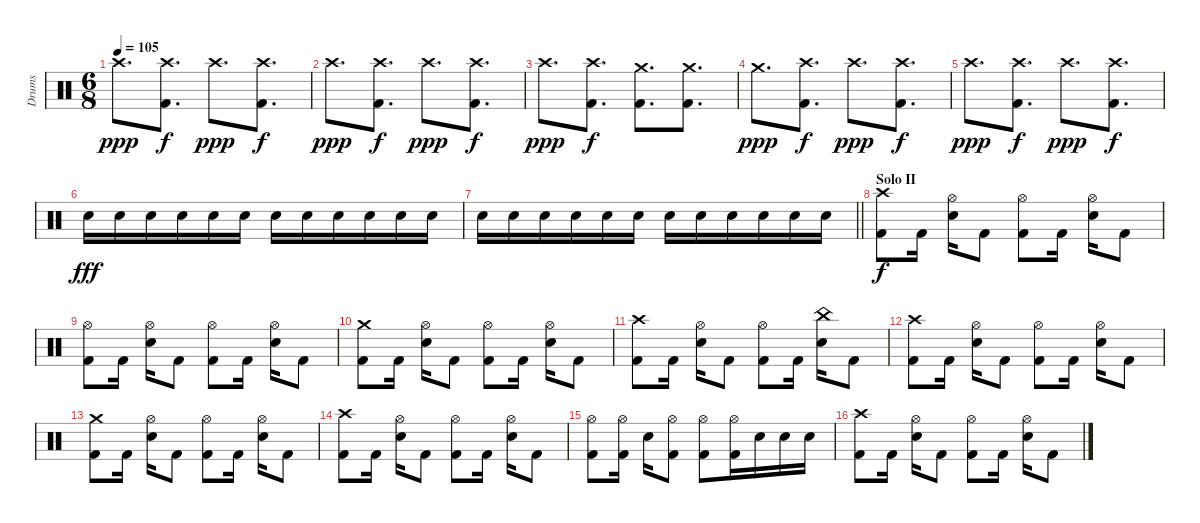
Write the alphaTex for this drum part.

\track ("Drums" "Drums") {instrument percussion}
\staff {score}
\articulation defaults
\ts (6 8)
\tempo 105
\clef neutral
\ks c "Crash high (hit)".8{d dy ppp}
("Crash high (hit)" "Kick (hit) 2").8{d dy f} "Crash high (hit)".8{d dy ppp} ("Crash high (hit)" "Kick (hit) 2").8{d dy f} |
"Crash high (hit)".8{d dy ppp} ("Crash high (hit)" "Kick (hit) 2").8{d dy f} "Crash high (hit)".8{d dy ppp} ("Crash high (hit)" "Kick (hit) 2").8{d dy f} |
"Crash high (hit)".8{d dy ppp} ("Crash high (hit)" "Kick (hit) 2").8{d dy f} ("Crash medium (hit)" "Kick (hit) 2").8{d} ("Crash medium (hit)" "Kick (hit) 2").8{d} |
"Crash medium (hit)".8{d dy ppp} ("Crash high (hit)" "Kick (hit) 2").8{d dy f} "Crash high (hit)".8{d dy ppp} ("Crash high (hit)" "Kick (hit) 2").8{d dy f} |
"Crash high (hit)".8{d dy ppp} ("Crash high (hit)" "Kick (hit) 2").8{d dy f} "Crash high (hit)".8{d dy ppp} ("Crash high (hit)" "Kick (hit) 2").8{d dy f} |
"Electric Snare (hit)".16{dy fff volume 3} "Electric Snare (hit)".16{volume 15} "Electric Snare (hit)".16 "Electric Snare (hit)".16 "Electric Snare (hit)".16 "Electric Snare (hit)".16 "Electric Snare (hit)".16 "Electric Snare (hit)".16 "Electric Snare (hit)".16 "Electric Snare (hit)".16 "Electric Snare (hit)".16 "Electric Snare (hit)".16 |
\barLineRight lightlight "Electric Snare (hit)".16 "Electric Snare (hit)".16 "Electric Snare (hit)".16 "Electric Snare (hit)".16 "Electric Snare (hit)".16 "Electric Snare (hit)".16 "Electric Snare (hit)".16 "Electric Snare (hit)".16 "Electric Snare (hit)".16 "Electric Snare (hit)".16 "Electric Snare (hit)".16 "Electric Snare (hit)".16
|
\section ("" "Solo II")
("Crash high (hit)" "Kick (hit) 2").8{dy f} "Kick (hit) 2".16{beam split} ("Hi-Hat (open)" "Electric Snare (hit)").16 "Kick (hit) 2".8 ("Hi-Hat (open)" "Kick (hit) 2").8 "Kick (hit) 2".16{beam split} ("Hi-Hat (open)" "Electric Snare (hit)").16 "Kick (hit) 2".8 |
("Hi-Hat (open)" "Kick (hit) 2").8 "Kick (hit) 2".16{beam split} ("Hi-Hat (open)" "Electric Snare (hit)").16 "Kick (hit) 2".8 ("Hi-Hat (open)" "Kick (hit) 2").8 "Kick (hit) 2".16{beam split} ("Hi-Hat (open)" "Electric Snare (hit)").16 "Kick (hit) 2".8 |
("Crash medium (hit)" "Kick (hit) 2").8 "Kick (hit) 2".16{beam split} ("Hi-Hat (open)" "Electric Snare (hit)").16 "Kick (hit) 2".8 ("Hi-Hat (open)" "Kick (hit) 2").8 "Kick (hit) 2".16{beam split} ("Hi-Hat (open)" "Electric Snare (hit)").16 "Kick (hit) 2".8 |
("Crash high (hit)" "Kick (hit) 2").8 "Kick (hit) 2".16{beam split} ("Hi-Hat (open)" "Electric Snare (hit)").16 "Kick (hit) 2".8 ("Hi-Hat (open)" "Kick (hit) 2").8 "Kick (hit) 2".16{beam split} ("China (hit)" "Electric Snare (hit)").16 "Kick (hit) 2".8 |
("Crash high (hit)" "Kick (hit) 2").8 "Kick (hit) 2".16{beam split} ("Hi-Hat (open)" "Electric Snare (hit)").16 "Kick (hit) 2".8 ("Hi-Hat (open)" "Kick (hit) 2").8 "Kick (hit) 2".16{beam split} ("Hi-Hat (open)" "Electric Snare (hit)").16 "Kick (hit) 2".8 |
("Crash medium (hit)" "Kick (hit) 2").8 "Kick (hit) 2".16{beam split} ("Hi-Hat (open)" "Electric Snare (hit)").16 "Kick (hit) 2".8 ("Hi-Hat (open)" "Kick (hit) 2").8 "Kick (hit) 2".16{beam split} ("Hi-Hat (open)" "Electric Snare (hit)").16 "Kick (hit) 2".8 |
("Crash high (hit)" "Kick (hit) 2").8 "Kick (hit) 2".16{beam split} ("Hi-Hat (open)" "Electric Snare (hit)").16 "Kick (hit) 2".8 ("Hi-Hat (open)" "Kick (hit) 2").8 "Kick (hit) 2".16{beam split} ("Hi-Hat (open)" "Electric Snare (hit)").16 "Kick (hit) 2".8 |
("Hi-Hat (open)" "Kick (hit) 2").8 ("Hi-Hat (open)" "Kick (hit) 2").16{beam split} "Electric Snare (hit)".16 ("Hi-Hat (open)" "Kick (hit) 2").8 ("Hi-Hat (open)" "Kick (hit) 2").8 ("Hi-Hat (open)" "Kick (hit) 2").16 "Electric Snare (hit)".16 "Electric Snare (hit)".16 "Electric Snare (hit)".16 |
("Crash high (hit)" "Kick (hit) 2").8 "Kick (hit) 2".16{beam split} ("Hi-Hat (open)" "Electric Snare (hit)").16 "Kick (hit) 2".8 ("Hi-Hat (open)" "Kick (hit) 2").8 "Kick (hit) 2".16{beam split} ("Hi-Hat (open)" "Electric Snare (hit)").16 "Kick (hit) 2".8
